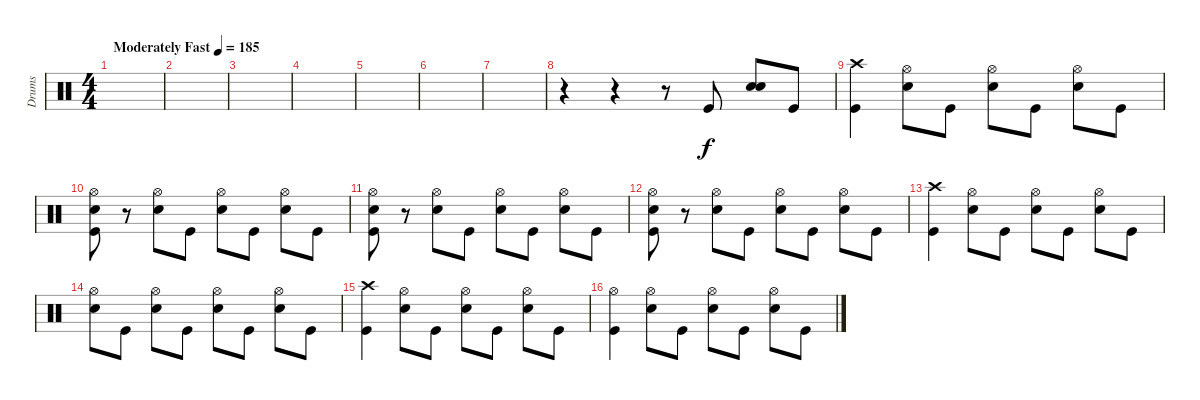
\track ("Drums " "Drums ") {instrument percussion}
\staff {score}
\articulation defaults
\ts (4 4)
\tempo (185 "Moderately Fast")
\clef neutral
\ks c
|
|
|
|
|
|
|
r.4 r.4 r.8 "Kick (hit)".8 ("Snare (hit) 2" "Snare (hit) 2").8 "Kick (hit)".8 |
("Crash high (hit)" "Kick (hit)").4 ("Hi-Hat (open)" "Snare (hit) 2").8 "Kick (hit)".8 ("Hi-Hat (open)" "Snare (hit) 2").8 "Kick (hit)".8 ("Hi-Hat (open)" "Snare (hit) 2").8 "Kick (hit)".8 |
("Hi-Hat (open)" "Snare (hit) 2" "Kick (hit)").8 r.8 ("Hi-Hat (open)" "Snare (hit) 2").8 "Kick (hit)".8 ("Hi-Hat (open)" "Snare (hit) 2").8 "Kick (hit)".8 ("Hi-Hat (open)" "Snare (hit) 2").8 "Kick (hit)".8 |
("Hi-Hat (open)" "Snare (hit) 2" "Kick (hit)").8 r.8 ("Hi-Hat (open)" "Snare (hit) 2").8 "Kick (hit)".8 ("Hi-Hat (open)" "Snare (hit) 2").8 "Kick (hit)".8 ("Hi-Hat (open)" "Snare (hit) 2").8 "Kick (hit)".8 |
("Hi-Hat (open)" "Snare (hit) 2" "Kick (hit)").8 r.8 ("Hi-Hat (open)" "Snare (hit) 2").8 "Kick (hit)".8 ("Hi-Hat (open)" "Snare (hit) 2").8 "Kick (hit)".8 ("Hi-Hat (open)" "Snare (hit) 2").8 "Kick (hit)".8 |
("Crash high (hit)" "Kick (hit)").4 ("Hi-Hat (open)" "Snare (hit) 2").8 "Kick (hit)".8 ("Hi-Hat (open)" "Snare (hit) 2").8 "Kick (hit)".8 ("Hi-Hat (open)" "Snare (hit) 2").8 "Kick (hit)".8 |
("Hi-Hat (open)" "Snare (hit) 2").8 "Kick (hit)".8 ("Hi-Hat (open)" "Snare (hit) 2").8 "Kick (hit)".8 ("Hi-Hat (open)" "Snare (hit) 2").8 "Kick (hit)".8 ("Hi-Hat (open)" "Snare (hit) 2").8 "Kick (hit)".8 |
("Crash high (hit)" "Kick (hit)").4 ("Hi-Hat (open)" "Snare (hit) 2").8 "Kick (hit)".8 ("Hi-Hat (open)" "Snare (hit) 2").8 "Kick (hit)".8 ("Hi-Hat (open)" "Snare (hit) 2").8 "Kick (hit)".8 |
("Hi-Hat (open)" "Kick (hit)").4 ("Hi-Hat (open)" "Snare (hit) 2").8 "Kick (hit)".8 ("Hi-Hat (open)" "Snare (hit) 2").8 "Kick (hit)".8 ("Hi-Hat (open)" "Snare (hit) 2").8 "Kick (hit)".8
